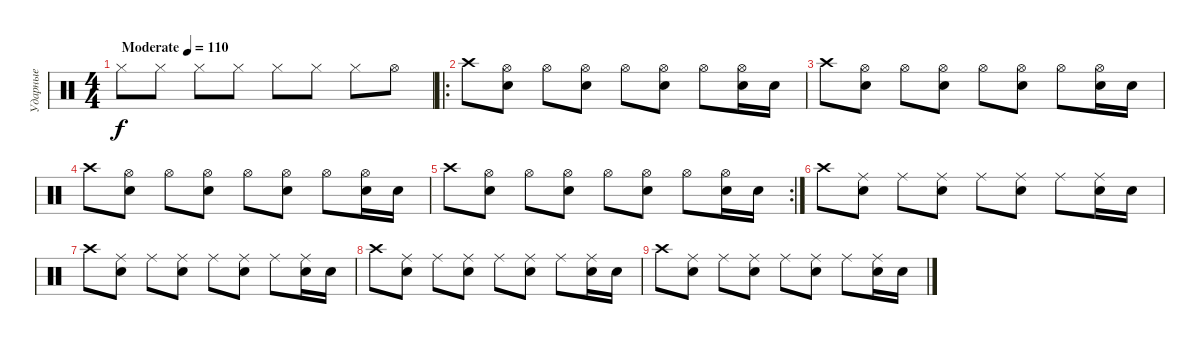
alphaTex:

\track ("Ударные" "Ударные") {instrument percussion}
\staff {score}
\articulation defaults
\ts (4 4)
\tempo (110 "Moderate")
\clef neutral
\ks c "Hi-Hat (closed)".8{dy f} "Hi-Hat (closed)".8 "Hi-Hat (closed)".8 "Hi-Hat (closed)".8 "Hi-Hat (closed)".8 "Hi-Hat (closed)".8 "Hi-Hat (closed)".8 "Hi-Hat (open)".8
|
\ro "Crash high (hit)".8
("Electric Snare (hit)" "Hi-Hat (open)").8 "Hi-Hat (open)".8 ("Electric Snare (hit)" "Hi-Hat (open)").8 "Hi-Hat (open)".8 ("Electric Snare (hit)" "Hi-Hat (open)").8 "Hi-Hat (open)".8 ("Electric Snare (hit)" "Hi-Hat (open)").16 "Electric Snare (hit)".16 |
"Crash high (hit)".8 ("Electric Snare (hit)" "Hi-Hat (open)").8 "Hi-Hat (open)".8 ("Electric Snare (hit)" "Hi-Hat (open)").8 "Hi-Hat (open)".8 ("Electric Snare (hit)" "Hi-Hat (open)").8 "Hi-Hat (open)".8 ("Electric Snare (hit)" "Hi-Hat (open)").16 "Electric Snare (hit)".16 |
"Crash high (hit)".8 ("Electric Snare (hit)" "Hi-Hat (open)").8 "Hi-Hat (open)".8 ("Electric Snare (hit)" "Hi-Hat (open)").8 "Hi-Hat (open)".8 ("Electric Snare (hit)" "Hi-Hat (open)").8 "Hi-Hat (open)".8 ("Electric Snare (hit)" "Hi-Hat (open)").16 "Electric Snare (hit)".16 |
\rc 2 "Crash high (hit)".8
("Electric Snare (hit)" "Hi-Hat (open)").8 "Hi-Hat (open)".8 ("Electric Snare (hit)" "Hi-Hat (open)").8 "Hi-Hat (open)".8 ("Electric Snare (hit)" "Hi-Hat (open)").8 "Hi-Hat (open)".8 ("Electric Snare (hit)" "Hi-Hat (open)").16 "Electric Snare (hit)".16 |
"Crash high (hit)".8 ("Electric Snare (hit)" "Ride (middle)").8 "Ride (middle)".8 ("Electric Snare (hit)" "Ride (middle)").8 "Ride (middle)".8 ("Electric Snare (hit)" "Ride (middle)").8 "Ride (middle)".8 ("Electric Snare (hit)" "Ride (middle)").16 "Electric Snare (hit)".16 |
"Crash high (hit)".8 ("Electric Snare (hit)" "Ride (middle)").8 "Ride (middle)".8 ("Electric Snare (hit)" "Ride (middle)").8 "Ride (middle)".8 ("Electric Snare (hit)" "Ride (middle)").8 "Ride (middle)".8 ("Electric Snare (hit)" "Ride (middle)").16 "Electric Snare (hit)".16 |
"Crash high (hit)".8 ("Electric Snare (hit)" "Ride (middle)").8 "Ride (middle)".8 ("Electric Snare (hit)" "Ride (middle)").8 "Ride (middle)".8 ("Electric Snare (hit)" "Ride (middle)").8 "Ride (middle)".8 ("Electric Snare (hit)" "Ride (middle)").16 "Electric Snare (hit)".16 |
"Crash high (hit)".8 ("Electric Snare (hit)" "Ride (middle)").8 "Ride (middle)".8 ("Electric Snare (hit)" "Ride (middle)").8 "Ride (middle)".8 ("Electric Snare (hit)" "Ride (middle)").8 "Ride (middle)".8 ("Electric Snare (hit)" "Ride (middle)").16 "Electric Snare (hit)".16
